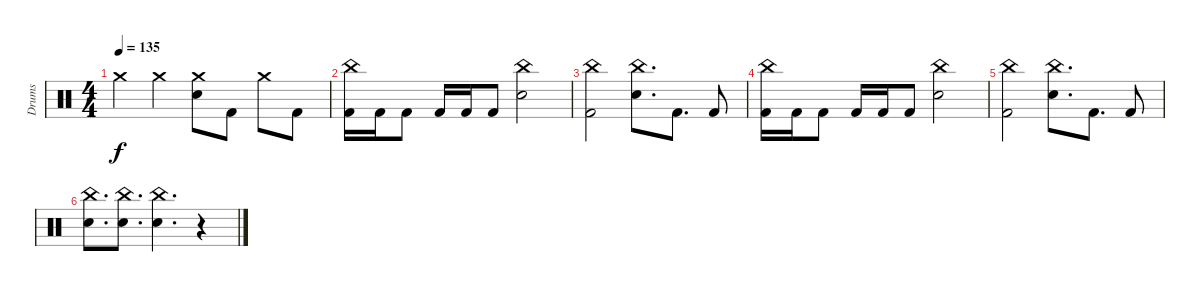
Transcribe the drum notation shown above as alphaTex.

\track ("Drums" "Drums") {instrument percussion}
\staff {score}
\articulation defaults
\ts (4 4)
\tempo 135
\clef neutral
\ks c "Crash medium (hit)".4{dy f} "Crash medium (hit)".4
("Crash medium (hit)" "Electric Snare (hit)").8 "Kick (hit) 2".8 "Crash medium (hit)".8 "Kick (hit) 2".8 |
("China (hit)" "Kick (hit) 2").16 "Kick (hit) 2".16 "Kick (hit) 2".8 "Kick (hit) 2".16 "Kick (hit) 2".16 "Kick (hit) 2".8 ("China (hit)" "Electric Snare (hit)").2 |
("China (hit)" "Kick (hit) 2").2 ("China (hit)" "Electric Snare (hit)").8{d} "Kick (hit) 2".8{d} "Kick (hit) 2".8 |
("China (hit)" "Kick (hit) 2").16 "Kick (hit) 2".16 "Kick (hit) 2".8 "Kick (hit) 2".16 "Kick (hit) 2".16 "Kick (hit) 2".8 ("China (hit)" "Electric Snare (hit)").2 |
("China (hit)" "Kick (hit) 2").2 ("China (hit)" "Electric Snare (hit)").8{d} "Kick (hit) 2".8{d} "Kick (hit) 2".8 |
("China (hit)" "Electric Snare (hit)").8{d} ("China (hit)" "Electric Snare (hit)").8{d} ("China (hit)" "Electric Snare (hit)").4{d} r.4
